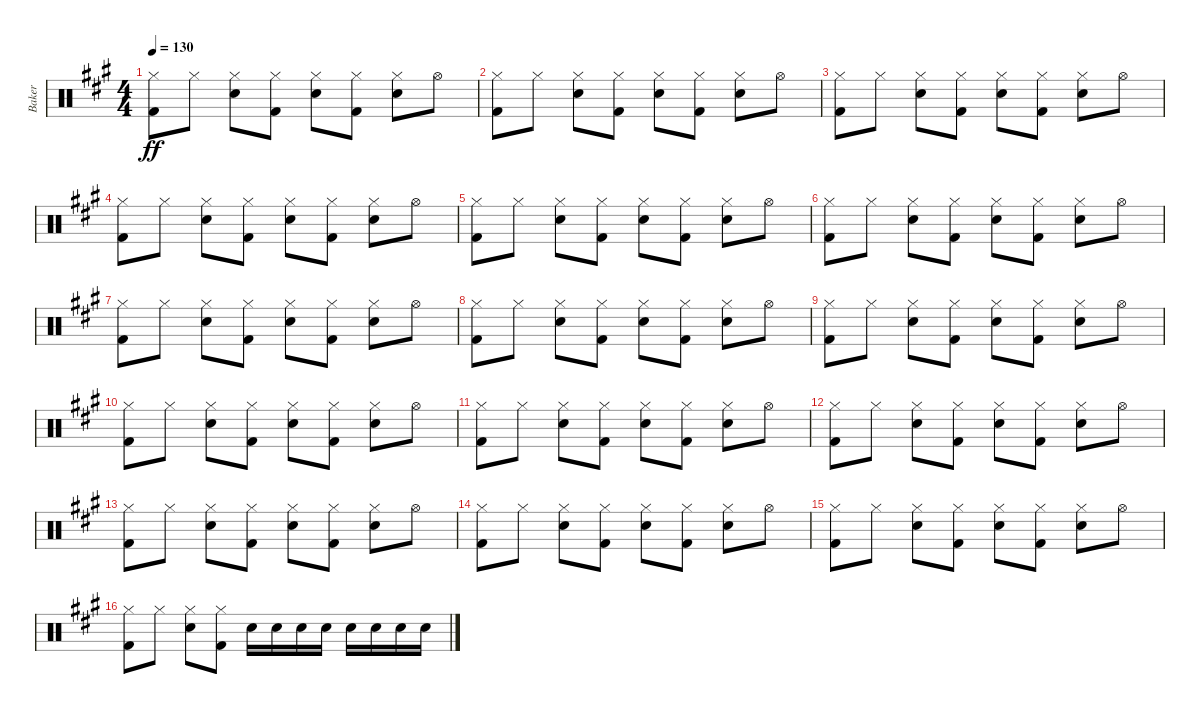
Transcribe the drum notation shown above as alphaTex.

\track ("Baker" "Baker") {instrument percussion}
\staff {score}
\articulation defaults
\ts (4 4)
\tempo 130
\clef neutral
\ks a
("Hi-Hat (closed)" "Kick (hit) 2").8{dy ff} "Hi-Hat (closed)".8 ("Hi-Hat (closed)" "Snare (hit) 2").8 ("Hi-Hat (closed)" "Kick (hit) 2").8 ("Hi-Hat (closed)" "Snare (hit) 2").8 ("Hi-Hat (closed)" "Kick (hit) 2").8 ("Hi-Hat (closed)" "Snare (hit) 2").8 "Hi-Hat (open)".8 |
("Hi-Hat (closed)" "Kick (hit) 2").8 "Hi-Hat (closed)".8 ("Hi-Hat (closed)" "Snare (hit) 2").8 ("Hi-Hat (closed)" "Kick (hit) 2").8 ("Hi-Hat (closed)" "Snare (hit) 2").8 ("Hi-Hat (closed)" "Kick (hit) 2").8 ("Hi-Hat (closed)" "Snare (hit) 2").8 "Hi-Hat (open)".8 |
("Hi-Hat (closed)" "Kick (hit) 2").8 "Hi-Hat (closed)".8 ("Hi-Hat (closed)" "Snare (hit) 2").8 ("Hi-Hat (closed)" "Kick (hit) 2").8 ("Hi-Hat (closed)" "Snare (hit) 2").8 ("Hi-Hat (closed)" "Kick (hit) 2").8 ("Hi-Hat (closed)" "Snare (hit) 2").8 "Hi-Hat (open)".8 |
("Hi-Hat (closed)" "Kick (hit) 2").8 "Hi-Hat (closed)".8 ("Hi-Hat (closed)" "Snare (hit) 2").8 ("Hi-Hat (closed)" "Kick (hit) 2").8 ("Hi-Hat (closed)" "Snare (hit) 2").8 ("Hi-Hat (closed)" "Kick (hit) 2").8 ("Hi-Hat (closed)" "Snare (hit) 2").8 "Hi-Hat (open)".8 |
("Hi-Hat (closed)" "Kick (hit) 2").8 "Hi-Hat (closed)".8 ("Hi-Hat (closed)" "Snare (hit) 2").8 ("Hi-Hat (closed)" "Kick (hit) 2").8 ("Hi-Hat (closed)" "Snare (hit) 2").8 ("Hi-Hat (closed)" "Kick (hit) 2").8 ("Hi-Hat (closed)" "Snare (hit) 2").8 "Hi-Hat (open)".8 |
("Hi-Hat (closed)" "Kick (hit) 2").8 "Hi-Hat (closed)".8 ("Hi-Hat (closed)" "Snare (hit) 2").8 ("Hi-Hat (closed)" "Kick (hit) 2").8 ("Hi-Hat (closed)" "Snare (hit) 2").8 ("Hi-Hat (closed)" "Kick (hit) 2").8 ("Hi-Hat (closed)" "Snare (hit) 2").8 "Hi-Hat (open)".8 |
("Hi-Hat (closed)" "Kick (hit) 2").8 "Hi-Hat (closed)".8 ("Hi-Hat (closed)" "Snare (hit) 2").8 ("Hi-Hat (closed)" "Kick (hit) 2").8 ("Hi-Hat (closed)" "Snare (hit) 2").8 ("Hi-Hat (closed)" "Kick (hit) 2").8 ("Hi-Hat (closed)" "Snare (hit) 2").8 "Hi-Hat (open)".8 |
("Hi-Hat (closed)" "Kick (hit) 2").8 "Hi-Hat (closed)".8 ("Hi-Hat (closed)" "Snare (hit) 2").8 ("Hi-Hat (closed)" "Kick (hit) 2").8 ("Hi-Hat (closed)" "Snare (hit) 2").8 ("Hi-Hat (closed)" "Kick (hit) 2").8 ("Hi-Hat (closed)" "Snare (hit) 2").8 "Hi-Hat (open)".8 |
("Hi-Hat (closed)" "Kick (hit) 2").8 "Hi-Hat (closed)".8 ("Hi-Hat (closed)" "Snare (hit) 2").8 ("Hi-Hat (closed)" "Kick (hit) 2").8 ("Hi-Hat (closed)" "Snare (hit) 2").8 ("Hi-Hat (closed)" "Kick (hit) 2").8 ("Hi-Hat (closed)" "Snare (hit) 2").8 "Hi-Hat (open)".8 |
("Hi-Hat (closed)" "Kick (hit) 2").8 "Hi-Hat (closed)".8 ("Hi-Hat (closed)" "Snare (hit) 2").8 ("Hi-Hat (closed)" "Kick (hit) 2").8 ("Hi-Hat (closed)" "Snare (hit) 2").8 ("Hi-Hat (closed)" "Kick (hit) 2").8 ("Hi-Hat (closed)" "Snare (hit) 2").8 "Hi-Hat (open)".8 |
("Hi-Hat (closed)" "Kick (hit) 2").8 "Hi-Hat (closed)".8 ("Hi-Hat (closed)" "Snare (hit) 2").8 ("Hi-Hat (closed)" "Kick (hit) 2").8 ("Hi-Hat (closed)" "Snare (hit) 2").8 ("Hi-Hat (closed)" "Kick (hit) 2").8 ("Hi-Hat (closed)" "Snare (hit) 2").8 "Hi-Hat (open)".8 |
("Hi-Hat (closed)" "Kick (hit) 2").8 "Hi-Hat (closed)".8 ("Hi-Hat (closed)" "Snare (hit) 2").8 ("Hi-Hat (closed)" "Kick (hit) 2").8 ("Hi-Hat (closed)" "Snare (hit) 2").8 ("Hi-Hat (closed)" "Kick (hit) 2").8 ("Hi-Hat (closed)" "Snare (hit) 2").8 "Hi-Hat (open)".8 |
("Hi-Hat (closed)" "Kick (hit) 2").8 "Hi-Hat (closed)".8 ("Hi-Hat (closed)" "Snare (hit) 2").8 ("Hi-Hat (closed)" "Kick (hit) 2").8 ("Hi-Hat (closed)" "Snare (hit) 2").8 ("Hi-Hat (closed)" "Kick (hit) 2").8 ("Hi-Hat (closed)" "Snare (hit) 2").8 "Hi-Hat (open)".8 |
("Hi-Hat (closed)" "Kick (hit) 2").8 "Hi-Hat (closed)".8 ("Hi-Hat (closed)" "Snare (hit) 2").8 ("Hi-Hat (closed)" "Kick (hit) 2").8 ("Hi-Hat (closed)" "Snare (hit) 2").8 ("Hi-Hat (closed)" "Kick (hit) 2").8 ("Hi-Hat (closed)" "Snare (hit) 2").8 "Hi-Hat (open)".8 |
("Hi-Hat (closed)" "Kick (hit) 2").8 "Hi-Hat (closed)".8 ("Hi-Hat (closed)" "Snare (hit) 2").8 ("Hi-Hat (closed)" "Kick (hit) 2").8 ("Hi-Hat (closed)" "Snare (hit) 2").8 ("Hi-Hat (closed)" "Kick (hit) 2").8 ("Hi-Hat (closed)" "Snare (hit) 2").8 "Hi-Hat (open)".8 |
("Hi-Hat (closed)" "Kick (hit) 2").8 "Hi-Hat (closed)".8 ("Hi-Hat (closed)" "Snare (hit) 2").8 ("Hi-Hat (closed)" "Kick (hit) 2").8 "Snare (hit) 2".16 "Snare (hit) 2".16 "Snare (hit) 2".16 "Snare (hit) 2".16 "Snare (hit) 2".16 "Snare (hit) 2".16 "Snare (hit) 2".16 "Snare (hit) 2".16
